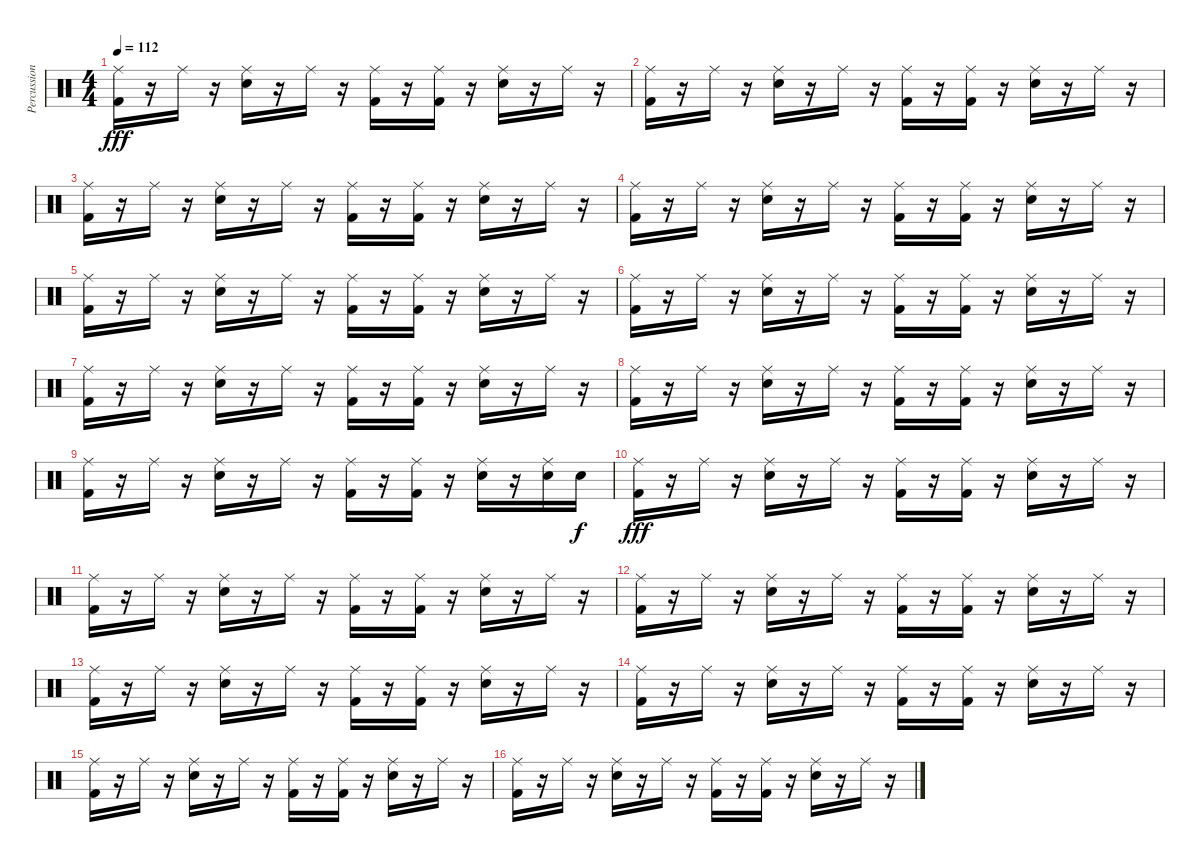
\track ("Percussions" "Percussion") {instrument percussion}
\staff {score}
\articulation defaults
\ts (4 4)
\tempo 112
\clef neutral
\ks c
("Ride (middle)" "Kick (hit) 2").16{dy fff} r.16 "Ride (middle)".16 r.16 ("Ride (middle)" "Electric Snare (hit)").16 r.16 "Ride (middle)".16 r.16 ("Ride (middle)" "Kick (hit) 2").16 r.16 ("Ride (middle)" "Kick (hit) 2").16 r.16 ("Ride (middle)" "Electric Snare (hit)").16 r.16 "Ride (middle)".16 r.16 |
("Ride (middle)" "Kick (hit) 2").16 r.16 "Ride (middle)".16 r.16 ("Ride (middle)" "Electric Snare (hit)").16 r.16 "Ride (middle)".16 r.16 ("Ride (middle)" "Kick (hit) 2").16 r.16 ("Ride (middle)" "Kick (hit) 2").16 r.16 ("Ride (middle)" "Electric Snare (hit)").16 r.16 "Ride (middle)".16 r.16 |
("Ride (middle)" "Kick (hit) 2").16 r.16 "Ride (middle)".16 r.16 ("Ride (middle)" "Electric Snare (hit)").16 r.16 "Ride (middle)".16 r.16 ("Ride (middle)" "Kick (hit) 2").16 r.16 ("Ride (middle)" "Kick (hit) 2").16 r.16 ("Ride (middle)" "Electric Snare (hit)").16 r.16 "Ride (middle)".16 r.16 |
("Ride (middle)" "Kick (hit) 2").16 r.16 "Ride (middle)".16 r.16 ("Ride (middle)" "Electric Snare (hit)").16 r.16 "Ride (middle)".16 r.16 ("Ride (middle)" "Kick (hit) 2").16 r.16 ("Ride (middle)" "Kick (hit) 2").16 r.16 ("Ride (middle)" "Electric Snare (hit)").16 r.16 "Ride (middle)".16 r.16 |
("Ride (middle)" "Kick (hit) 2").16 r.16 "Ride (middle)".16 r.16 ("Ride (middle)" "Electric Snare (hit)").16 r.16 "Ride (middle)".16 r.16 ("Ride (middle)" "Kick (hit) 2").16 r.16 ("Ride (middle)" "Kick (hit) 2").16 r.16 ("Ride (middle)" "Electric Snare (hit)").16 r.16 "Ride (middle)".16 r.16 |
("Ride (middle)" "Kick (hit) 2").16 r.16 "Ride (middle)".16 r.16 ("Ride (middle)" "Electric Snare (hit)").16 r.16 "Ride (middle)".16 r.16 ("Ride (middle)" "Kick (hit) 2").16 r.16 ("Ride (middle)" "Kick (hit) 2").16 r.16 ("Ride (middle)" "Electric Snare (hit)").16 r.16 "Ride (middle)".16 r.16 |
("Ride (middle)" "Kick (hit) 2").16 r.16 "Ride (middle)".16 r.16 ("Ride (middle)" "Electric Snare (hit)").16 r.16 "Ride (middle)".16 r.16 ("Ride (middle)" "Kick (hit) 2").16 r.16 ("Ride (middle)" "Kick (hit) 2").16 r.16 ("Ride (middle)" "Electric Snare (hit)").16 r.16 "Ride (middle)".16 r.16 |
("Ride (middle)" "Kick (hit) 2").16 r.16 "Ride (middle)".16 r.16 ("Ride (middle)" "Electric Snare (hit)").16 r.16 "Ride (middle)".16 r.16 ("Ride (middle)" "Kick (hit) 2").16 r.16 ("Ride (middle)" "Kick (hit) 2").16 r.16 ("Ride (middle)" "Electric Snare (hit)").16 r.16 "Ride (middle)".16 r.16 |
("Ride (middle)" "Kick (hit) 2").16 r.16 "Ride (middle)".16 r.16 ("Ride (middle)" "Electric Snare (hit)").16 r.16 "Ride (middle)".16 r.16 ("Ride (middle)" "Kick (hit) 2").16 r.16 ("Ride (middle)" "Kick (hit) 2").16 r.16 ("Ride (middle)" "Electric Snare (hit)").16 r.16 ("Ride (middle)" "Electric Snare (hit)").16 "Electric Snare (hit)".16{dy f} |
("Ride (middle)" "Kick (hit) 2").16{dy fff} r.16 "Ride (middle)".16 r.16 ("Ride (middle)" "Electric Snare (hit)").16 r.16 "Ride (middle)".16 r.16 ("Ride (middle)" "Kick (hit) 2").16 r.16 ("Ride (middle)" "Kick (hit) 2").16 r.16 ("Ride (middle)" "Electric Snare (hit)").16 r.16 "Ride (middle)".16 r.16 |
("Ride (middle)" "Kick (hit) 2").16 r.16 "Ride (middle)".16 r.16 ("Ride (middle)" "Electric Snare (hit)").16 r.16 "Ride (middle)".16 r.16 ("Ride (middle)" "Kick (hit) 2").16 r.16 ("Ride (middle)" "Kick (hit) 2").16 r.16 ("Ride (middle)" "Electric Snare (hit)").16 r.16 "Ride (middle)".16 r.16 |
("Ride (middle)" "Kick (hit) 2").16 r.16 "Ride (middle)".16 r.16 ("Ride (middle)" "Electric Snare (hit)").16 r.16 "Ride (middle)".16 r.16 ("Ride (middle)" "Kick (hit) 2").16 r.16 ("Ride (middle)" "Kick (hit) 2").16 r.16 ("Ride (middle)" "Electric Snare (hit)").16 r.16 "Ride (middle)".16 r.16 |
("Ride (middle)" "Kick (hit) 2").16 r.16 "Ride (middle)".16 r.16 ("Ride (middle)" "Electric Snare (hit)").16 r.16 "Ride (middle)".16 r.16 ("Ride (middle)" "Kick (hit) 2").16 r.16 ("Ride (middle)" "Kick (hit) 2").16 r.16 ("Ride (middle)" "Electric Snare (hit)").16 r.16 "Ride (middle)".16 r.16 |
("Ride (middle)" "Kick (hit) 2").16 r.16 "Ride (middle)".16 r.16 ("Ride (middle)" "Electric Snare (hit)").16 r.16 "Ride (middle)".16 r.16 ("Ride (middle)" "Kick (hit) 2").16 r.16 ("Ride (middle)" "Kick (hit) 2").16 r.16 ("Ride (middle)" "Electric Snare (hit)").16 r.16 "Ride (middle)".16 r.16 |
("Ride (middle)" "Kick (hit) 2").16 r.16 "Ride (middle)".16 r.16 ("Ride (middle)" "Electric Snare (hit)").16 r.16 "Ride (middle)".16 r.16 ("Ride (middle)" "Kick (hit) 2").16 r.16 ("Ride (middle)" "Kick (hit) 2").16 r.16 ("Ride (middle)" "Electric Snare (hit)").16 r.16 "Ride (middle)".16 r.16 |
("Ride (middle)" "Kick (hit) 2").16 r.16 "Ride (middle)".16 r.16 ("Ride (middle)" "Electric Snare (hit)").16 r.16 "Ride (middle)".16 r.16 ("Ride (middle)" "Kick (hit) 2").16 r.16 ("Ride (middle)" "Kick (hit) 2").16 r.16 ("Ride (middle)" "Electric Snare (hit)").16 r.16 "Ride (middle)".16 r.16
